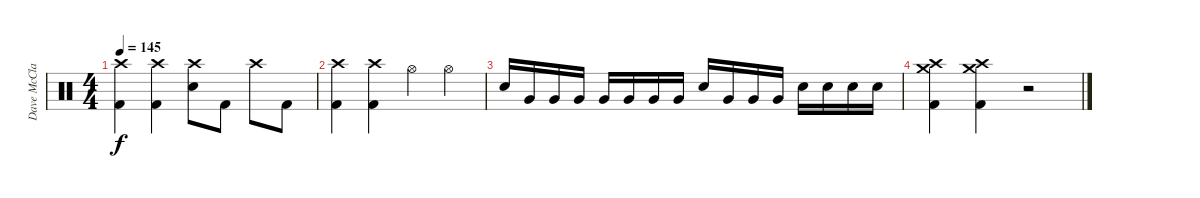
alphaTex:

\track ("Dave McClain" "Dave McCla") {instrument percussion}
\staff {score}
\articulation defaults
\ts (4 4)
\tempo 145
\clef neutral
\ks c
("Crash high (hit)" "Kick (hit) 2").4{dy f} ("Crash high (hit)" "Kick (hit) 2").4 ("Crash high (hit)" "Snare (hit) 2").8 "Kick (hit) 2".8 "Crash high (hit)".8 "Kick (hit) 2".8 |
("Crash high (hit)" "Kick (hit) 2").4 ("Crash high (hit)" "Kick (hit) 2").4 "Hi-Hat (open)".4 "Hi-Hat (open)".4 |
"Snare (hit) 2".16 "Very Low Tom (hit)".16 "Very Low Tom (hit)".16 "Very Low Tom (hit)".16 "Very Low Tom (hit)".16 "Very Low Tom (hit)".16 "Very Low Tom (hit)".16 "Very Low Tom (hit)".16 "Snare (hit) 2".16 "Very Low Tom (hit)".16 "Very Low Tom (hit)".16 "Very Low Tom (hit)".16 "Snare (hit) 2".16 "Snare (hit) 2".16 "Snare (hit) 2".16 "Snare (hit) 2".16 |
("Crash high (hit)" "Crash medium (hit)" "Kick (hit) 2").4 ("Crash high (hit)" "Crash medium (hit)" "Kick (hit) 2").4 r.2
